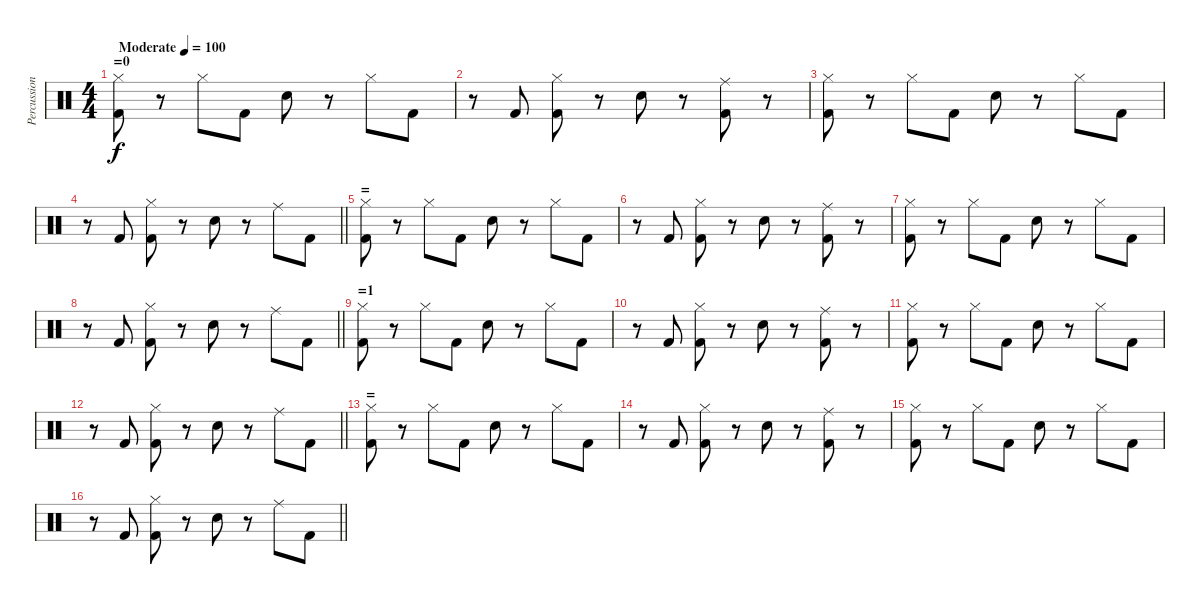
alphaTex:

\track ("Percussion" "Percussion") {instrument percussion}
\staff {score}
\articulation defaults
\ts (4 4)
\section ("" "=0")
\tempo (100 "Moderate")
\clef neutral
\ks c
("Kick (hit) 2" "Hi-Hat (closed)").8{dy f} r.8 "Hi-Hat (closed)".8 "Kick (hit) 2".8 "Electric Snare (hit)".8 r.8 "Hi-Hat (closed)".8 "Kick (hit) 2".8 |
r.8 "Kick (hit) 2".8 ("Kick (hit) 2" "Hi-Hat (closed)").8 r.8 "Electric Snare (hit)".8 r.8 ("Kick (hit) 2" "Ride (middle)").8 r.8 |
("Kick (hit) 2" "Hi-Hat (closed)").8 r.8 "Hi-Hat (closed)".8 "Kick (hit) 2".8 "Electric Snare (hit)".8 r.8 "Hi-Hat (closed)".8 "Kick (hit) 2".8 |
\barLineRight lightlight
r.8 "Kick (hit) 2".8 ("Kick (hit) 2" "Hi-Hat (closed)").8 r.8 "Electric Snare (hit)".8 r.8 "Ride (middle)".8 "Kick (hit) 2".8 |
\section ("" "=")
("Kick (hit) 2" "Hi-Hat (closed)").8 r.8 "Hi-Hat (closed)".8 "Kick (hit) 2".8 "Electric Snare (hit)".8 r.8 "Hi-Hat (closed)".8 "Kick (hit) 2".8 |
r.8 "Kick (hit) 2".8 ("Kick (hit) 2" "Hi-Hat (closed)").8 r.8 "Electric Snare (hit)".8 r.8 ("Kick (hit) 2" "Ride (middle)").8 r.8 |
("Kick (hit) 2" "Hi-Hat (closed)").8 r.8 "Hi-Hat (closed)".8 "Kick (hit) 2".8 "Electric Snare (hit)".8 r.8 "Hi-Hat (closed)".8 "Kick (hit) 2".8 |
\barLineRight lightlight
r.8 "Kick (hit) 2".8 ("Kick (hit) 2" "Hi-Hat (closed)").8 r.8 "Electric Snare (hit)".8 r.8 "Ride (middle)".8 "Kick (hit) 2".8 |
\section ("" "=1")
("Kick (hit) 2" "Hi-Hat (closed)").8 r.8 "Hi-Hat (closed)".8 "Kick (hit) 2".8 "Electric Snare (hit)".8 r.8 "Hi-Hat (closed)".8 "Kick (hit) 2".8 |
r.8 "Kick (hit) 2".8 ("Kick (hit) 2" "Hi-Hat (closed)").8 r.8 "Electric Snare (hit)".8 r.8 ("Kick (hit) 2" "Ride (middle)").8 r.8 |
("Kick (hit) 2" "Hi-Hat (closed)").8 r.8 "Hi-Hat (closed)".8 "Kick (hit) 2".8 "Electric Snare (hit)".8 r.8 "Hi-Hat (closed)".8 "Kick (hit) 2".8 |
\barLineRight lightlight
r.8 "Kick (hit) 2".8 ("Kick (hit) 2" "Hi-Hat (closed)").8 r.8 "Electric Snare (hit)".8 r.8 "Ride (middle)".8 "Kick (hit) 2".8 |
\section ("" "=")
("Kick (hit) 2" "Hi-Hat (closed)").8 r.8 "Hi-Hat (closed)".8 "Kick (hit) 2".8 "Electric Snare (hit)".8 r.8 "Hi-Hat (closed)".8 "Kick (hit) 2".8 |
r.8 "Kick (hit) 2".8 ("Kick (hit) 2" "Hi-Hat (closed)").8 r.8 "Electric Snare (hit)".8 r.8 ("Kick (hit) 2" "Ride (middle)").8 r.8 |
("Kick (hit) 2" "Hi-Hat (closed)").8 r.8 "Hi-Hat (closed)".8 "Kick (hit) 2".8 "Electric Snare (hit)".8 r.8 "Hi-Hat (closed)".8 "Kick (hit) 2".8 |
\barLineRight lightlight
r.8 "Kick (hit) 2".8 ("Kick (hit) 2" "Hi-Hat (closed)").8 r.8 "Electric Snare (hit)".8 r.8 "Ride (middle)".8 "Kick (hit) 2".8
